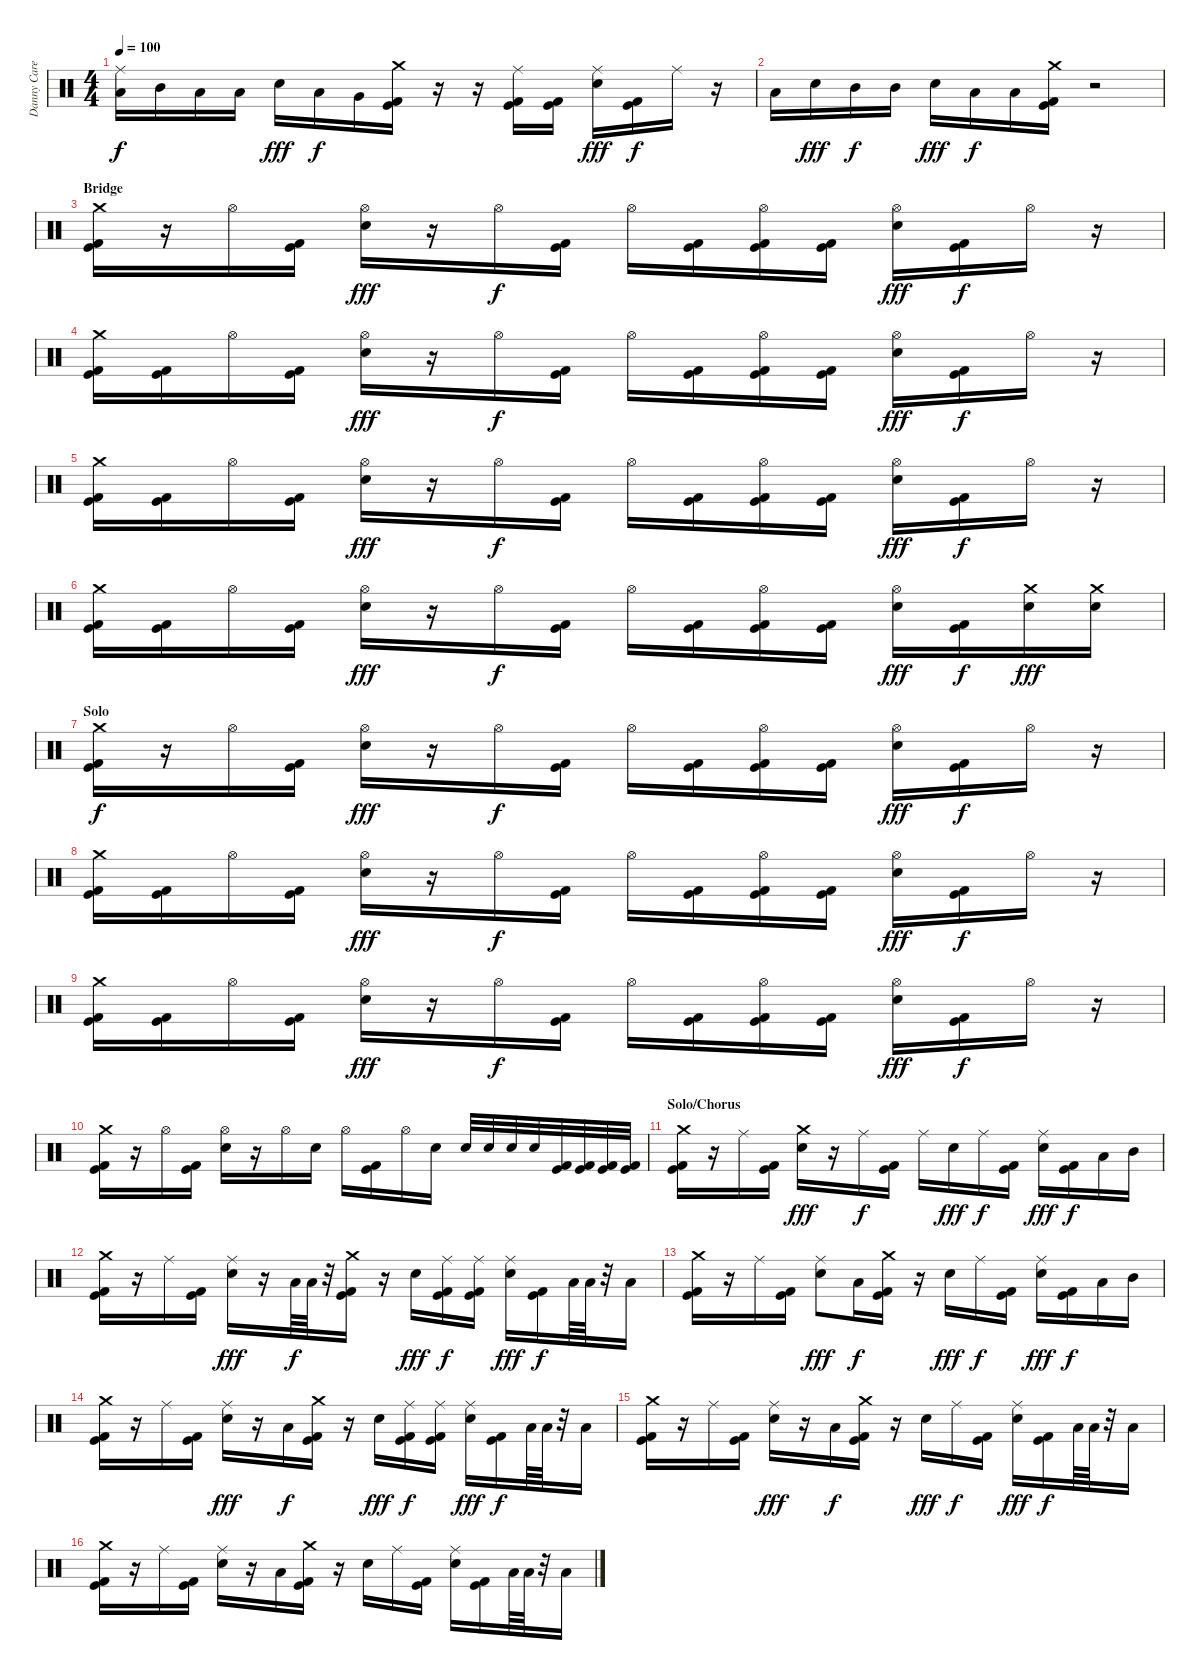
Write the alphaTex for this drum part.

\track ("Danny Carey - Percussion" "Danny Care") {instrument percussion}
\staff {score}
\articulation defaults
\ts (4 4)
\tempo 100
\clef neutral
\ks c
("Ride (middle)" "Low Tom (hit)").16{dy f} "Mid Tom (hit)".16 "Low Tom (hit)".16 "Low Tom (hit)".16 "Electric Snare (hit)".16{dy fff} "Low Tom (hit)".16{dy f} "Very Low Tom (hit)".16 ("Crash medium (hit)" "Kick (hit)" "Kick (hit) 2").16 r.16 r.16 ("Ride (middle)" "Kick (hit)" "Kick (hit) 2").16 ("Kick (hit)" "Kick (hit) 2").16 ("Ride (middle)" "Electric Snare (hit)").16{dy fff} ("Kick (hit)" "Kick (hit) 2").16{dy f} "Ride (middle)".16 r.16 |
"Low Tom (hit)".16 "Electric Snare (hit)".16{dy fff} "Mid Tom (hit)".16{dy f} "Mid Tom (hit)".16 "Electric Snare (hit)".16{dy fff} "Low Tom (hit)".16{dy f} "Low Tom (hit)".16 ("Crash medium (hit)" "Kick (hit)" "Kick (hit) 2").16 r.2 |
\section ("" "Bridge")
("Crash medium (hit)" "Kick (hit)" "Kick (hit) 2").16 r.16 "Hi-Hat (open)".16 ("Kick (hit)" "Kick (hit) 2").16 ("Hi-Hat (open)" "Electric Snare (hit)").16{dy fff} r.16 "Hi-Hat (open)".16{dy f} ("Kick (hit)" "Kick (hit) 2").16 "Hi-Hat (open)".16 ("Kick (hit)" "Kick (hit) 2").16 ("Hi-Hat (open)" "Kick (hit)" "Kick (hit) 2").16 ("Kick (hit)" "Kick (hit) 2").16 ("Hi-Hat (open)" "Electric Snare (hit)").16{dy fff} ("Kick (hit)" "Kick (hit) 2").16{dy f} "Hi-Hat (open)".16 r.16 |
("Crash medium (hit)" "Kick (hit)" "Kick (hit) 2").16 ("Kick (hit)" "Kick (hit) 2").16 "Hi-Hat (open)".16 ("Kick (hit)" "Kick (hit) 2").16 ("Hi-Hat (open)" "Electric Snare (hit)").16{dy fff} r.16 "Hi-Hat (open)".16{dy f} ("Kick (hit)" "Kick (hit) 2").16 "Hi-Hat (open)".16 ("Kick (hit)" "Kick (hit) 2").16 ("Hi-Hat (open)" "Kick (hit)" "Kick (hit) 2").16 ("Kick (hit)" "Kick (hit) 2").16 ("Hi-Hat (open)" "Electric Snare (hit)").16{dy fff} ("Kick (hit)" "Kick (hit) 2").16{dy f} "Hi-Hat (open)".16 r.16 |
("Crash medium (hit)" "Kick (hit)" "Kick (hit) 2").16 ("Kick (hit)" "Kick (hit) 2").16 "Hi-Hat (open)".16 ("Kick (hit)" "Kick (hit) 2").16 ("Hi-Hat (open)" "Electric Snare (hit)").16{dy fff} r.16 "Hi-Hat (open)".16{dy f} ("Kick (hit)" "Kick (hit) 2").16 "Hi-Hat (open)".16 ("Kick (hit)" "Kick (hit) 2").16 ("Hi-Hat (open)" "Kick (hit)" "Kick (hit) 2").16 ("Kick (hit)" "Kick (hit) 2").16 ("Hi-Hat (open)" "Electric Snare (hit)").16{dy fff} ("Kick (hit)" "Kick (hit) 2").16{dy f} "Hi-Hat (open)".16 r.16 |
("Crash medium (hit)" "Kick (hit)" "Kick (hit) 2").16 ("Kick (hit)" "Kick (hit) 2").16 "Hi-Hat (open)".16 ("Kick (hit)" "Kick (hit) 2").16 ("Hi-Hat (open)" "Electric Snare (hit)").16{dy fff} r.16 "Hi-Hat (open)".16{dy f} ("Kick (hit)" "Kick (hit) 2").16 "Hi-Hat (open)".16 ("Kick (hit)" "Kick (hit) 2").16 ("Hi-Hat (open)" "Kick (hit)" "Kick (hit) 2").16 ("Kick (hit)" "Kick (hit) 2").16 ("Hi-Hat (open)" "Electric Snare (hit)").16{dy fff} ("Kick (hit)" "Kick (hit) 2").16{dy f} ("Crash medium (hit)" "Electric Snare (hit)").16{dy fff} ("Crash medium (hit)" "Electric Snare (hit)").16 |
\section ("" "Solo")
("Crash medium (hit)" "Kick (hit)" "Kick (hit) 2").16{dy f} r.16 "Hi-Hat (open)".16 ("Kick (hit)" "Kick (hit) 2").16 ("Hi-Hat (open)" "Electric Snare (hit)").16{dy fff} r.16 "Hi-Hat (open)".16{dy f} ("Kick (hit)" "Kick (hit) 2").16 "Hi-Hat (open)".16 ("Kick (hit)" "Kick (hit) 2").16 ("Hi-Hat (open)" "Kick (hit)" "Kick (hit) 2").16 ("Kick (hit)" "Kick (hit) 2").16 ("Hi-Hat (open)" "Electric Snare (hit)").16{dy fff} ("Kick (hit)" "Kick (hit) 2").16{dy f} "Hi-Hat (open)".16 r.16 |
("Crash medium (hit)" "Kick (hit)" "Kick (hit) 2").16 ("Kick (hit)" "Kick (hit) 2").16 "Hi-Hat (open)".16 ("Kick (hit)" "Kick (hit) 2").16 ("Hi-Hat (open)" "Electric Snare (hit)").16{dy fff} r.16 "Hi-Hat (open)".16{dy f} ("Kick (hit)" "Kick (hit) 2").16 "Hi-Hat (open)".16 ("Kick (hit)" "Kick (hit) 2").16 ("Hi-Hat (open)" "Kick (hit)" "Kick (hit) 2").16 ("Kick (hit)" "Kick (hit) 2").16 ("Hi-Hat (open)" "Electric Snare (hit)").16{dy fff} ("Kick (hit)" "Kick (hit) 2").16{dy f} "Hi-Hat (open)".16 r.16 |
("Crash medium (hit)" "Kick (hit)" "Kick (hit) 2").16 ("Kick (hit)" "Kick (hit) 2").16 "Hi-Hat (open)".16 ("Kick (hit)" "Kick (hit) 2").16 ("Hi-Hat (open)" "Electric Snare (hit)").16{dy fff} r.16 "Hi-Hat (open)".16{dy f} ("Kick (hit)" "Kick (hit) 2").16 "Hi-Hat (open)".16 ("Kick (hit)" "Kick (hit) 2").16 ("Hi-Hat (open)" "Kick (hit)" "Kick (hit) 2").16 ("Kick (hit)" "Kick (hit) 2").16 ("Hi-Hat (open)" "Electric Snare (hit)").16{dy fff} ("Kick (hit)" "Kick (hit) 2").16{dy f} "Hi-Hat (open)".16 r.16 |
("Crash medium (hit)" "Kick (hit)" "Kick (hit) 2").16 r.16 "Hi-Hat (open)".16 ("Kick (hit)" "Kick (hit) 2").16 ("Hi-Hat (open)" "Electric Snare (hit)").16 r.16 "Hi-Hat (open)".16 "Electric Snare (hit)".16 "Hi-Hat (open)".16 ("Kick (hit)" "Kick (hit) 2").16 "Hi-Hat (open)".16 "Electric Snare (hit)".16 "Electric Snare (hit)".32 "Electric Snare (hit)".32 "Electric Snare (hit)".32 "Electric Snare (hit)".32 ("Kick (hit)" "Kick (hit) 2").32 ("Kick (hit)" "Kick (hit) 2").32 ("Kick (hit)" "Kick (hit) 2").32 ("Kick (hit)" "Kick (hit) 2").32 |
\section ("" "Solo/Chorus")
("Crash medium (hit)" "Kick (hit)" "Kick (hit) 2").16 r.16 "Ride (middle)".16 ("Kick (hit)" "Kick (hit) 2").16 ("Crash medium (hit)" "Electric Snare (hit)").16{dy fff} r.16 "Ride (middle)".16{dy f} ("Kick (hit)" "Kick (hit) 2").16 "Ride (middle)".16 "Electric Snare (hit)".16{dy fff} "Ride (middle)".16{dy f} ("Kick (hit)" "Kick (hit) 2").16 ("Ride (middle)" "Electric Snare (hit)").16{dy fff} ("Kick (hit)" "Kick (hit) 2").16{dy f} "Low Tom (hit)".16 "Mid Tom (hit)".16 |
("Crash medium (hit)" "Kick (hit)" "Kick (hit) 2").16 r.16 "Ride (middle)".16 ("Kick (hit)" "Kick (hit) 2").16 ("Ride (middle)" "Electric Snare (hit)").16{dy fff} r.16 "Low Tom (hit)".64{dy f} "Low Tom (hit)".64 r.32 ("Crash medium (hit)" "Kick (hit)" "Kick (hit) 2").16 r.16 "Electric Snare (hit)".16{dy fff} ("Ride (middle)" "Kick (hit)" "Kick (hit) 2").16{dy f} ("Ride (middle)" "Kick (hit)" "Kick (hit) 2").16 ("Ride (middle)" "Electric Snare (hit)").16{dy fff} ("Kick (hit)" "Kick (hit) 2").16{dy f} "Low Tom (hit)".64 "Low Tom (hit)".64 r.32 "Low Tom (hit)".16 |
("Crash medium (hit)" "Kick (hit)" "Kick (hit) 2").16 r.16 "Ride (middle)".16 ("Kick (hit)" "Kick (hit) 2").16 ("Ride (middle)" "Electric Snare (hit)").8{dy fff} "Low Tom (hit)".16{dy f} ("Crash medium (hit)" "Kick (hit)" "Kick (hit) 2").16 r.16 "Electric Snare (hit)".16{dy fff} "Ride (middle)".16{dy f} ("Kick (hit)" "Kick (hit) 2").16 ("Ride (middle)" "Electric Snare (hit)").16{dy fff} ("Kick (hit)" "Kick (hit) 2").16{dy f} "Low Tom (hit)".16 "Mid Tom (hit)".16 |
("Crash medium (hit)" "Kick (hit)" "Kick (hit) 2").16 r.16 "Ride (middle)".16 ("Kick (hit)" "Kick (hit) 2").16 ("Ride (middle)" "Electric Snare (hit)").16{dy fff} r.16 "Low Tom (hit)".16{dy f} ("Crash medium (hit)" "Kick (hit)" "Kick (hit) 2").16 r.16 "Electric Snare (hit)".16{dy fff} ("Ride (middle)" "Kick (hit)" "Kick (hit) 2").16{dy f} ("Ride (middle)" "Kick (hit)" "Kick (hit) 2").16 ("Ride (middle)" "Electric Snare (hit)").16{dy fff} ("Kick (hit)" "Kick (hit) 2").16{dy f} "Low Tom (hit)".64 "Low Tom (hit)".64 r.32 "Low Tom (hit)".16 |
("Crash medium (hit)" "Kick (hit)" "Kick (hit) 2").16 r.16 "Ride (middle)".16 ("Kick (hit)" "Kick (hit) 2").16 ("Ride (middle)" "Electric Snare (hit)").16{dy fff} r.16 "Low Tom (hit)".16{dy f} ("Crash medium (hit)" "Kick (hit)" "Kick (hit) 2").16 r.16 "Electric Snare (hit)".16{dy fff} "Ride (middle)".16{dy f} ("Kick (hit)" "Kick (hit) 2").16 ("Ride (middle)" "Electric Snare (hit)").16{dy fff} ("Kick (hit)" "Kick (hit) 2").16{dy f} "Low Tom (hit)".64 "Low Tom (hit)".64 r.32 "Low Tom (hit)".16 |
("Crash medium (hit)" "Kick (hit)" "Kick (hit) 2").16 r.16 "Ride (middle)".16 ("Kick (hit)" "Kick (hit) 2").16 ("Ride (middle)" "Electric Snare (hit)").16 r.16 "Low Tom (hit)".16 ("Crash medium (hit)" "Kick (hit)" "Kick (hit) 2").16 r.16 "Electric Snare (hit)".16 "Ride (middle)".16 ("Kick (hit)" "Kick (hit) 2").16 ("Ride (middle)" "Electric Snare (hit)").16 ("Kick (hit)" "Kick (hit) 2").16 "Low Tom (hit)".64 "Low Tom (hit)".64 r.32 "Low Tom (hit)".16
